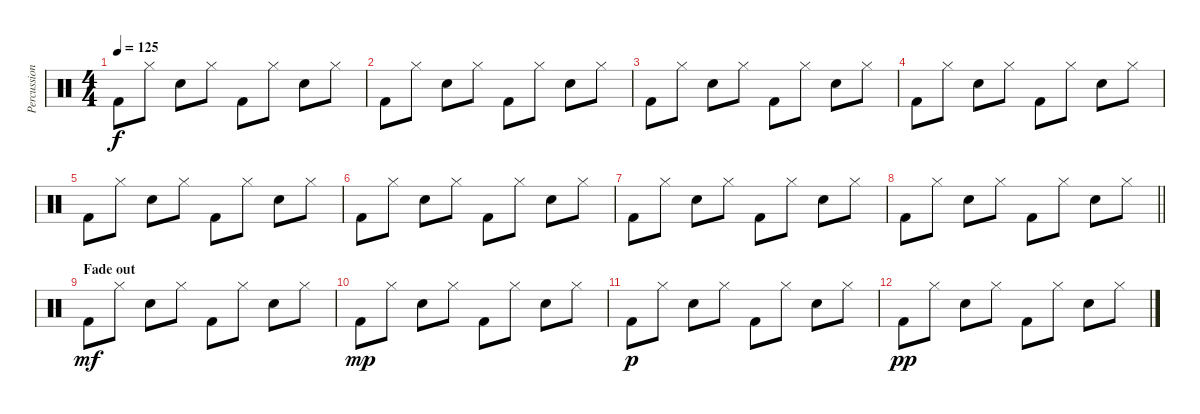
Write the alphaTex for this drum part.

\track ("Percussion" "Percussion") {instrument percussion}
\staff {score}
\articulation defaults
\ts (4 4)
\tempo 125
\clef neutral
\ks c "Kick (hit) 2".8{dy f} "Hi-Hat (closed)".8 "Electric Snare (hit)".8 "Hi-Hat (closed)".8 "Kick (hit) 2".8 "Hi-Hat (closed)".8 "Electric Snare (hit)".8 "Hi-Hat (closed)".8
|
"Kick (hit) 2".8 "Hi-Hat (closed)".8 "Electric Snare (hit)".8 "Hi-Hat (closed)".8 "Kick (hit) 2".8 "Hi-Hat (closed)".8 "Electric Snare (hit)".8 "Hi-Hat (closed)".8 |
"Kick (hit) 2".8 "Hi-Hat (closed)".8 "Electric Snare (hit)".8 "Hi-Hat (closed)".8 "Kick (hit) 2".8 "Hi-Hat (closed)".8 "Electric Snare (hit)".8 "Hi-Hat (closed)".8 |
"Kick (hit) 2".8 "Hi-Hat (closed)".8 "Electric Snare (hit)".8 "Hi-Hat (closed)".8 "Kick (hit) 2".8 "Hi-Hat (closed)".8 "Electric Snare (hit)".8 "Hi-Hat (closed)".8 |
"Kick (hit) 2".8 "Hi-Hat (closed)".8 "Electric Snare (hit)".8 "Hi-Hat (closed)".8 "Kick (hit) 2".8 "Hi-Hat (closed)".8 "Electric Snare (hit)".8 "Hi-Hat (closed)".8 |
"Kick (hit) 2".8 "Hi-Hat (closed)".8 "Electric Snare (hit)".8 "Hi-Hat (closed)".8 "Kick (hit) 2".8 "Hi-Hat (closed)".8 "Electric Snare (hit)".8 "Hi-Hat (closed)".8 |
"Kick (hit) 2".8 "Hi-Hat (closed)".8 "Electric Snare (hit)".8 "Hi-Hat (closed)".8 "Kick (hit) 2".8 "Hi-Hat (closed)".8 "Electric Snare (hit)".8 "Hi-Hat (closed)".8 |
\barLineRight lightlight "Kick (hit) 2".8 "Hi-Hat (closed)".8 "Electric Snare (hit)".8 "Hi-Hat (closed)".8 "Kick (hit) 2".8 "Hi-Hat (closed)".8 "Electric Snare (hit)".8 "Hi-Hat (closed)".8
|
\section ("" "Fade out")
"Kick (hit) 2".8{dy mf} "Hi-Hat (closed)".8 "Electric Snare (hit)".8 "Hi-Hat (closed)".8 "Kick (hit) 2".8 "Hi-Hat (closed)".8 "Electric Snare (hit)".8 "Hi-Hat (closed)".8 |
"Kick (hit) 2".8{dy mp} "Hi-Hat (closed)".8 "Electric Snare (hit)".8 "Hi-Hat (closed)".8 "Kick (hit) 2".8 "Hi-Hat (closed)".8 "Electric Snare (hit)".8 "Hi-Hat (closed)".8 |
"Kick (hit) 2".8{dy p} "Hi-Hat (closed)".8 "Electric Snare (hit)".8 "Hi-Hat (closed)".8 "Kick (hit) 2".8 "Hi-Hat (closed)".8 "Electric Snare (hit)".8 "Hi-Hat (closed)".8 |
"Kick (hit) 2".8{dy pp} "Hi-Hat (closed)".8 "Electric Snare (hit)".8 "Hi-Hat (closed)".8 "Kick (hit) 2".8 "Hi-Hat (closed)".8 "Electric Snare (hit)".8 "Hi-Hat (closed)".8
